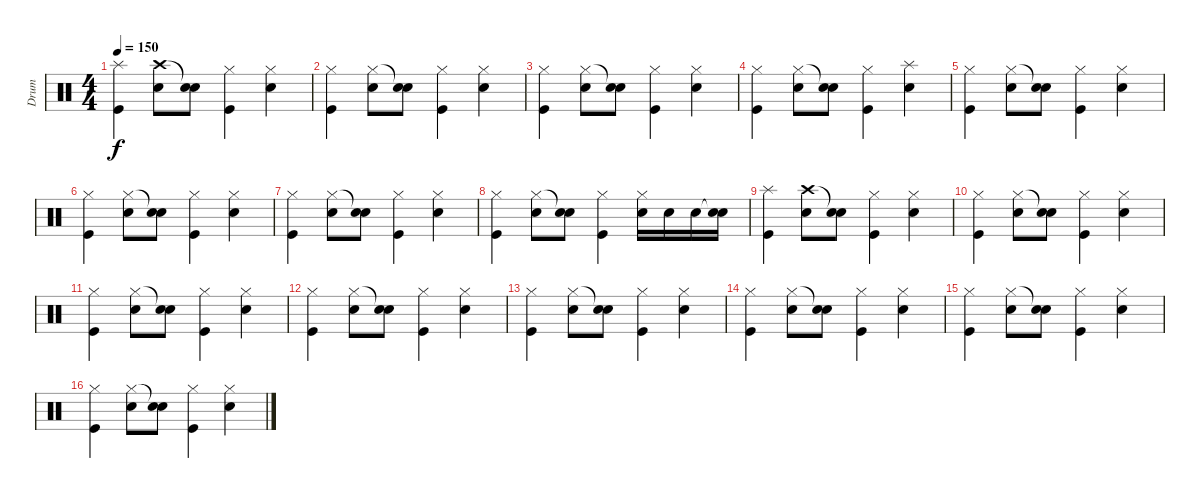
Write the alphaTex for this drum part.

\track ("Drum" "Drum") {instrument percussion}
\staff {score}
\articulation defaults
\ts (4 4)
\tempo 150
\clef neutral
\ks c
("Splash (hit)" "Kick (hit)").4{dy f} ("Crash high (hit)" "Snare (hit) 2").8 ("Snare (hit)"{t} "Snare (hit) 2").8 ("Hi-Hat (closed)" "Kick (hit)").4 ("Hi-Hat (closed)" "Snare (hit) 2").4 |
("Hi-Hat (closed)" "Kick (hit)").4 ("Hi-Hat (closed)" "Snare (hit) 2").8 ("Snare (hit)"{t} "Snare (hit) 2").8 ("Hi-Hat (closed)" "Kick (hit)").4 ("Hi-Hat (closed)" "Snare (hit) 2").4 |
("Hi-Hat (closed)" "Kick (hit)").4 ("Hi-Hat (closed)" "Snare (hit) 2").8 ("Snare (hit)"{t} "Snare (hit) 2").8 ("Hi-Hat (closed)" "Kick (hit)").4 ("Hi-Hat (closed)" "Snare (hit) 2").4 |
("Hi-Hat (closed)" "Kick (hit)").4 ("Hi-Hat (closed)" "Snare (hit) 2").8 ("Snare (hit)"{t} "Snare (hit) 2").8 ("Hi-Hat (closed)" "Kick (hit)").4 ("Splash (hit)" "Snare (hit) 2").4 |
("Hi-Hat (closed)" "Kick (hit)").4 ("Hi-Hat (closed)" "Snare (hit) 2").8 ("Snare (hit)"{t} "Snare (hit) 2").8 ("Hi-Hat (closed)" "Kick (hit)").4 ("Hi-Hat (closed)" "Snare (hit) 2").4 |
("Hi-Hat (closed)" "Kick (hit)").4 ("Hi-Hat (closed)" "Snare (hit) 2").8 ("Snare (hit)"{t} "Snare (hit) 2").8 ("Hi-Hat (closed)" "Kick (hit)").4 ("Hi-Hat (closed)" "Snare (hit) 2").4 |
("Hi-Hat (closed)" "Kick (hit)").4 ("Hi-Hat (closed)" "Snare (hit) 2").8 ("Snare (hit)"{t} "Snare (hit) 2").8 ("Hi-Hat (closed)" "Kick (hit)").4 ("Hi-Hat (closed)" "Snare (hit) 2").4 |
("Hi-Hat (closed)" "Kick (hit)").4 ("Hi-Hat (closed)" "Snare (hit) 2").8 ("Snare (hit)"{t} "Snare (hit) 2").8 ("Hi-Hat (closed)" "Kick (hit)").4 ("Hi-Hat (closed)" "Snare (hit) 2").16 "Snare (hit) 2".16 "Snare (hit) 2".16 ("Snare (hit)"{t} "Snare (hit) 2").16 |
("Splash (hit)" "Kick (hit)").4 ("Crash high (hit)" "Snare (hit) 2").8 ("Snare (hit)"{t} "Snare (hit) 2").8 ("Hi-Hat (closed)" "Kick (hit)").4 ("Hi-Hat (closed)" "Snare (hit) 2").4 |
("Hi-Hat (closed)" "Kick (hit)").4 ("Hi-Hat (closed)" "Snare (hit) 2").8 ("Snare (hit)"{t} "Snare (hit) 2").8 ("Hi-Hat (closed)" "Kick (hit)").4 ("Hi-Hat (closed)" "Snare (hit) 2").4 |
("Hi-Hat (closed)" "Kick (hit)").4 ("Hi-Hat (closed)" "Snare (hit) 2").8 ("Snare (hit)"{t} "Snare (hit) 2").8 ("Hi-Hat (closed)" "Kick (hit)").4 ("Hi-Hat (closed)" "Snare (hit) 2").4 |
("Hi-Hat (closed)" "Kick (hit)").4 ("Hi-Hat (closed)" "Snare (hit) 2").8 ("Snare (hit)"{t} "Snare (hit) 2").8 ("Hi-Hat (closed)" "Kick (hit)").4 ("Hi-Hat (closed)" "Snare (hit) 2").4 |
("Hi-Hat (closed)" "Kick (hit)").4 ("Hi-Hat (closed)" "Snare (hit) 2").8 ("Snare (hit)"{t} "Snare (hit) 2").8 ("Hi-Hat (closed)" "Kick (hit)").4 ("Hi-Hat (closed)" "Snare (hit) 2").4 |
("Hi-Hat (closed)" "Kick (hit)").4 ("Hi-Hat (closed)" "Snare (hit) 2").8 ("Snare (hit)"{t} "Snare (hit) 2").8 ("Hi-Hat (closed)" "Kick (hit)").4 ("Hi-Hat (closed)" "Snare (hit) 2").4 |
("Hi-Hat (closed)" "Kick (hit)").4 ("Hi-Hat (closed)" "Snare (hit) 2").8 ("Snare (hit)"{t} "Snare (hit) 2").8 ("Hi-Hat (closed)" "Kick (hit)").4 ("Hi-Hat (closed)" "Snare (hit) 2").4 |
("Hi-Hat (closed)" "Kick (hit)").4 ("Hi-Hat (closed)" "Snare (hit) 2").8 ("Snare (hit)"{t} "Snare (hit) 2").8 ("Hi-Hat (closed)" "Kick (hit)").4 ("Hi-Hat (closed)" "Snare (hit) 2").4
